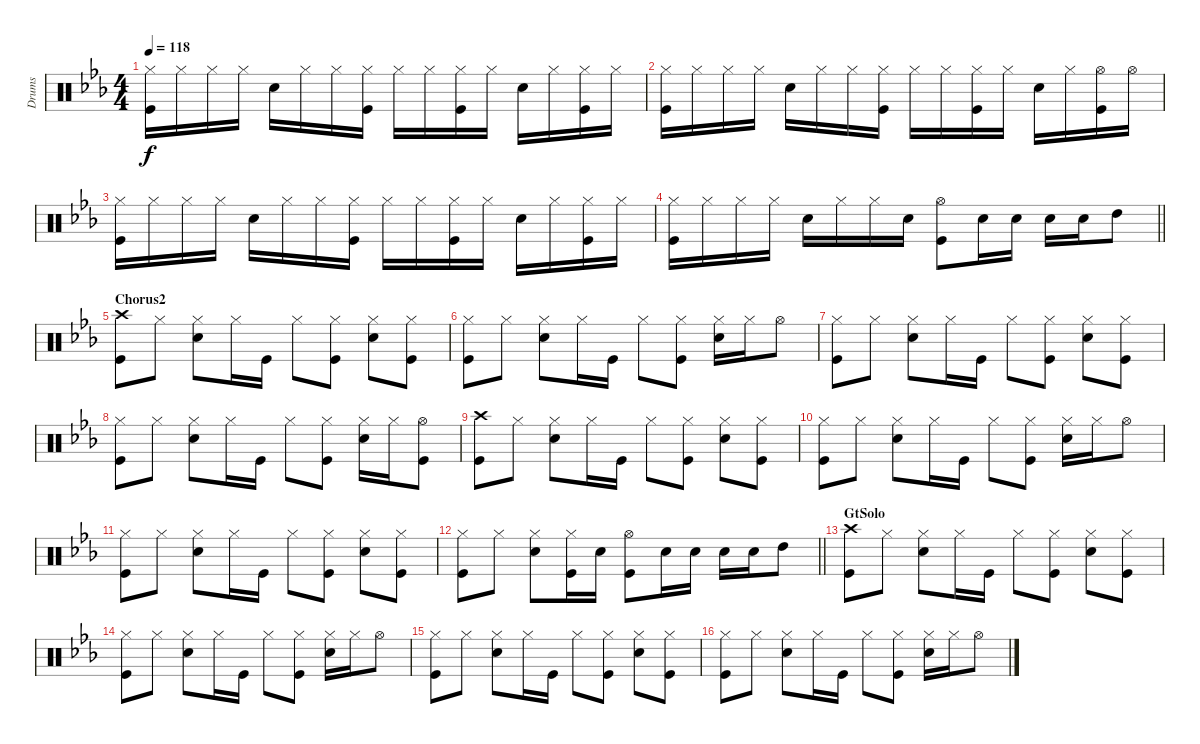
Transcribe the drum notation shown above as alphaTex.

\track ("Drums" "Drums") {instrument percussion}
\staff {score}
\articulation defaults
\ts (4 4)
\tempo 118
\clef neutral
\ks cminor
("Hi-Hat (closed)" "Kick (hit)").16{dy f} "Hi-Hat (closed)".16 "Hi-Hat (closed)".16 "Hi-Hat (closed)".16 "Snare (hit) 2".16 "Hi-Hat (closed)".16 "Hi-Hat (closed)".16 ("Hi-Hat (closed)" "Kick (hit)").16 "Hi-Hat (closed)".16 "Hi-Hat (closed)".16 ("Hi-Hat (closed)" "Kick (hit)").16 "Hi-Hat (closed)".16 "Snare (hit) 2".16 "Hi-Hat (closed)".16 ("Kick (hit)" "Hi-Hat (closed)").16 "Hi-Hat (closed)".16 |
("Hi-Hat (closed)" "Kick (hit)").16 "Hi-Hat (closed)".16 "Hi-Hat (closed)".16 "Hi-Hat (closed)".16 "Snare (hit) 2".16 "Hi-Hat (closed)".16 "Hi-Hat (closed)".16 ("Hi-Hat (closed)" "Kick (hit)").16 "Hi-Hat (closed)".16 "Hi-Hat (closed)".16 ("Hi-Hat (closed)" "Kick (hit)").16 "Hi-Hat (closed)".16 "Snare (hit) 2".16 "Hi-Hat (closed)".16 ("Kick (hit)" "Hi-Hat (open)").16 "Hi-Hat (open)".16 |
("Hi-Hat (closed)" "Kick (hit)").16 "Hi-Hat (closed)".16 "Hi-Hat (closed)".16 "Hi-Hat (closed)".16 "Snare (hit) 2".16 "Hi-Hat (closed)".16 "Hi-Hat (closed)".16 ("Hi-Hat (closed)" "Kick (hit)").16 "Hi-Hat (closed)".16 "Hi-Hat (closed)".16 ("Hi-Hat (closed)" "Kick (hit)").16 "Hi-Hat (closed)".16 "Snare (hit) 2".16 "Hi-Hat (closed)".16 ("Kick (hit)" "Hi-Hat (closed)").16 "Hi-Hat (closed)".16 |
\barLineRight lightlight
("Hi-Hat (closed)" "Kick (hit)").16 "Hi-Hat (closed)".16 "Hi-Hat (closed)".16 "Hi-Hat (closed)".16 "Snare (hit) 2".16 "Hi-Hat (closed)".16 "Hi-Hat (closed)".16 "Snare (hit) 2".16 ("Hi-Hat (open)" "Kick (hit)").8 "Snare (hit) 2".16 "Snare (hit) 2".16 "Snare (hit) 2".16 "Snare (hit) 2".16 "High Tom (hit)".8 |
\section ("" "Chorus2")
("Crash high (hit)" "Kick (hit)").8 "Hi-Hat (closed)".8 ("Hi-Hat (closed)" "Snare (hit) 2").8 "Hi-Hat (closed)".16 "Kick (hit)".16 "Hi-Hat (closed)".8 ("Hi-Hat (closed)" "Kick (hit)").8 ("Hi-Hat (closed)" "Snare (hit) 2").8 ("Hi-Hat (closed)" "Kick (hit)").8 |
("Hi-Hat (closed)" "Kick (hit)").8 "Hi-Hat (closed)".8 ("Hi-Hat (closed)" "Snare (hit) 2").8 "Hi-Hat (closed)".16 "Kick (hit)".16 "Hi-Hat (closed)".8 ("Hi-Hat (closed)" "Kick (hit)").8 ("Hi-Hat (closed)" "Snare (hit) 2").16 "Hi-Hat (closed)".16 "Hi-Hat (open)".8 |
("Hi-Hat (closed)" "Kick (hit)").8 "Hi-Hat (closed)".8 ("Hi-Hat (closed)" "Snare (hit) 2").8 "Hi-Hat (closed)".16 "Kick (hit)".16 "Hi-Hat (closed)".8 ("Hi-Hat (closed)" "Kick (hit)").8 ("Hi-Hat (closed)" "Snare (hit) 2").8 ("Hi-Hat (closed)" "Kick (hit)").8 |
("Hi-Hat (closed)" "Kick (hit)").8 "Hi-Hat (closed)".8 ("Hi-Hat (closed)" "Snare (hit) 2").8 "Hi-Hat (closed)".16 "Kick (hit)".16 "Hi-Hat (closed)".8 ("Hi-Hat (closed)" "Kick (hit)").8 ("Hi-Hat (closed)" "Snare (hit) 2").16 "Hi-Hat (closed)".16 ("Hi-Hat (open)" "Kick (hit)").8 |
("Crash high (hit)" "Kick (hit)").8 "Hi-Hat (closed)".8 ("Hi-Hat (closed)" "Snare (hit) 2").8 "Hi-Hat (closed)".16 "Kick (hit)".16 "Hi-Hat (closed)".8 ("Hi-Hat (closed)" "Kick (hit)").8 ("Hi-Hat (closed)" "Snare (hit) 2").8 ("Hi-Hat (closed)" "Kick (hit)").8 |
("Hi-Hat (closed)" "Kick (hit)").8 "Hi-Hat (closed)".8 ("Hi-Hat (closed)" "Snare (hit) 2").8 "Hi-Hat (closed)".16 "Kick (hit)".16 "Hi-Hat (closed)".8 ("Hi-Hat (closed)" "Kick (hit)").8 ("Hi-Hat (closed)" "Snare (hit) 2").16 "Hi-Hat (closed)".16 "Hi-Hat (open)".8 |
("Hi-Hat (closed)" "Kick (hit)").8 "Hi-Hat (closed)".8 ("Hi-Hat (closed)" "Snare (hit) 2").8 "Hi-Hat (closed)".16 "Kick (hit)".16 "Hi-Hat (closed)".8 ("Hi-Hat (closed)" "Kick (hit)").8 ("Hi-Hat (closed)" "Snare (hit) 2").8 ("Hi-Hat (closed)" "Kick (hit)").8 |
\barLineRight lightlight
("Hi-Hat (closed)" "Kick (hit)").8 "Hi-Hat (closed)".8 ("Hi-Hat (closed)" "Snare (hit) 2").8 ("Hi-Hat (closed)" "Kick (hit)").16 "Snare (hit) 2".16 ("Hi-Hat (open)" "Kick (hit)").8 "Snare (hit) 2".16 "Snare (hit) 2".16 "Snare (hit) 2".16 "Snare (hit) 2".16 "High Tom (hit)".8 |
\section ("" "GtSolo")
("Crash high (hit)" "Kick (hit)").8 "Hi-Hat (closed)".8 ("Hi-Hat (closed)" "Snare (hit) 2").8 "Hi-Hat (closed)".16 "Kick (hit)".16 "Hi-Hat (closed)".8 ("Hi-Hat (closed)" "Kick (hit)").8 ("Hi-Hat (closed)" "Snare (hit) 2").8 ("Hi-Hat (closed)" "Kick (hit)").8 |
("Hi-Hat (closed)" "Kick (hit)").8 "Hi-Hat (closed)".8 ("Hi-Hat (closed)" "Snare (hit) 2").8 "Hi-Hat (closed)".16 "Kick (hit)".16 "Hi-Hat (closed)".8 ("Hi-Hat (closed)" "Kick (hit)").8 ("Hi-Hat (closed)" "Snare (hit) 2").16 "Hi-Hat (closed)".16 "Hi-Hat (open)".8 |
("Hi-Hat (closed)" "Kick (hit)").8 "Hi-Hat (closed)".8 ("Hi-Hat (closed)" "Snare (hit) 2").8 "Hi-Hat (closed)".16 "Kick (hit)".16 "Hi-Hat (closed)".8 ("Hi-Hat (closed)" "Kick (hit)").8 ("Hi-Hat (closed)" "Snare (hit) 2").8 ("Hi-Hat (closed)" "Kick (hit)").8 |
("Hi-Hat (closed)" "Kick (hit)").8 "Hi-Hat (closed)".8 ("Hi-Hat (closed)" "Snare (hit) 2").8 "Hi-Hat (closed)".16 "Kick (hit)".16 "Hi-Hat (closed)".8 ("Hi-Hat (closed)" "Kick (hit)").8 ("Hi-Hat (closed)" "Snare (hit) 2").16 "Hi-Hat (closed)".16 "Hi-Hat (open)".8
